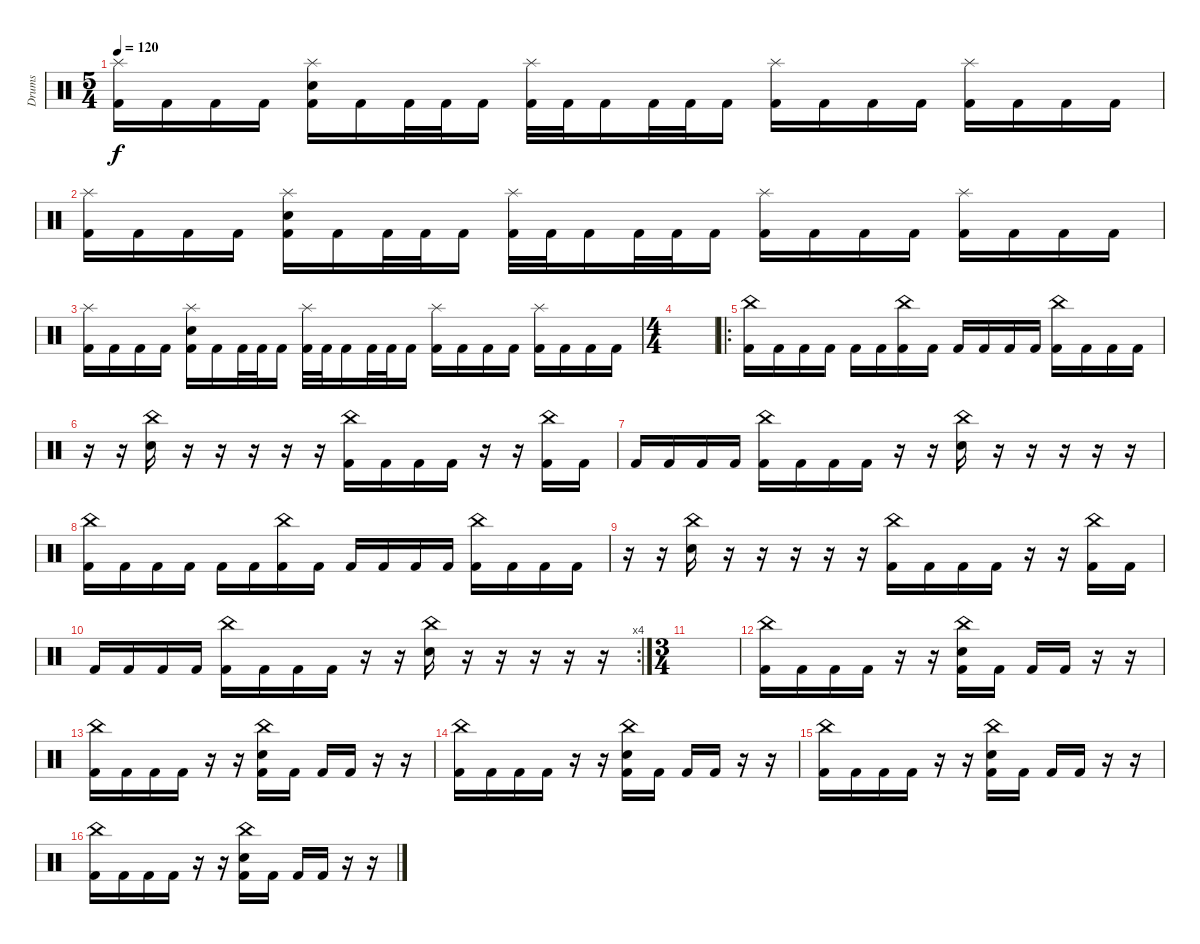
\track ("Drums" "Drums") {instrument percussion}
\staff {score}
\articulation defaults
\ts (5 4)
\tempo 120
\clef neutral
\ks c
("Splash (hit)" "Kick (hit) 2").16{dy f} "Kick (hit) 2".16 "Kick (hit) 2".16 "Kick (hit) 2".16 ("Splash (hit)" "Electric Snare (hit)" "Kick (hit) 2").16 "Kick (hit) 2".16 "Kick (hit) 2".32 "Kick (hit) 2".32 "Kick (hit) 2".16 ("Splash (hit)" "Kick (hit) 2").32 "Kick (hit) 2".32 "Kick (hit) 2".16 "Kick (hit) 2".32 "Kick (hit) 2".32 "Kick (hit) 2".16 ("Splash (hit)" "Kick (hit) 2").16 "Kick (hit) 2".16 "Kick (hit) 2".16 "Kick (hit) 2".16 ("Splash (hit)" "Kick (hit) 2").16 "Kick (hit) 2".16 "Kick (hit) 2".16 "Kick (hit) 2".16 |
("Splash (hit)" "Kick (hit) 2").16 "Kick (hit) 2".16 "Kick (hit) 2".16 "Kick (hit) 2".16 ("Splash (hit)" "Electric Snare (hit)" "Kick (hit) 2").16 "Kick (hit) 2".16 "Kick (hit) 2".32 "Kick (hit) 2".32 "Kick (hit) 2".16 ("Splash (hit)" "Kick (hit) 2").32 "Kick (hit) 2".32 "Kick (hit) 2".16 "Kick (hit) 2".32 "Kick (hit) 2".32 "Kick (hit) 2".16 ("Splash (hit)" "Kick (hit) 2").16 "Kick (hit) 2".16 "Kick (hit) 2".16 "Kick (hit) 2".16 ("Splash (hit)" "Kick (hit) 2").16 "Kick (hit) 2".16 "Kick (hit) 2".16 "Kick (hit) 2".16 |
("Splash (hit)" "Kick (hit) 2").16 "Kick (hit) 2".16 "Kick (hit) 2".16 "Kick (hit) 2".16 ("Splash (hit)" "Electric Snare (hit)" "Kick (hit) 2").16 "Kick (hit) 2".16 "Kick (hit) 2".32 "Kick (hit) 2".32 "Kick (hit) 2".16 ("Splash (hit)" "Kick (hit) 2").32 "Kick (hit) 2".32 "Kick (hit) 2".16 "Kick (hit) 2".32 "Kick (hit) 2".32 "Kick (hit) 2".16 ("Splash (hit)" "Kick (hit) 2").16 "Kick (hit) 2".16 "Kick (hit) 2".16 "Kick (hit) 2".16 ("Splash (hit)" "Kick (hit) 2").16 "Kick (hit) 2".16 "Kick (hit) 2".16 "Kick (hit) 2".16 |
\ts (4 4)
|
\ro
("China (hit)" "Kick (hit) 2").16 "Kick (hit) 2".16 "Kick (hit) 2".16 "Kick (hit) 2".16 "Kick (hit) 2".16 "Kick (hit) 2".16 ("China (hit)" "Kick (hit) 2").16 "Kick (hit) 2".16 "Kick (hit) 2".16 "Kick (hit) 2".16 "Kick (hit) 2".16 "Kick (hit) 2".16 ("China (hit)" "Kick (hit) 2").16 "Kick (hit) 2".16 "Kick (hit) 2".16 "Kick (hit) 2".16 |
r.16 r.16 ("China (hit)" "Electric Snare (hit)").16 r.16 r.16 r.16 r.16 r.16 ("China (hit)" "Kick (hit) 2").16 "Kick (hit) 2".16 "Kick (hit) 2".16 "Kick (hit) 2".16 r.16 r.16 ("China (hit)" "Kick (hit) 2").16 "Kick (hit) 2".16 |
"Kick (hit) 2".16 "Kick (hit) 2".16 "Kick (hit) 2".16 "Kick (hit) 2".16 ("China (hit)" "Kick (hit) 2").16 "Kick (hit) 2".16 "Kick (hit) 2".16 "Kick (hit) 2".16 r.16 r.16 ("China (hit)" "Electric Snare (hit)").16 r.16 r.16 r.16 r.16 r.16 |
("China (hit)" "Kick (hit) 2").16 "Kick (hit) 2".16 "Kick (hit) 2".16 "Kick (hit) 2".16 "Kick (hit) 2".16 "Kick (hit) 2".16 ("China (hit)" "Kick (hit) 2").16 "Kick (hit) 2".16 "Kick (hit) 2".16 "Kick (hit) 2".16 "Kick (hit) 2".16 "Kick (hit) 2".16 ("China (hit)" "Kick (hit) 2").16 "Kick (hit) 2".16 "Kick (hit) 2".16 "Kick (hit) 2".16 |
r.16 r.16 ("China (hit)" "Electric Snare (hit)").16 r.16 r.16 r.16 r.16 r.16 ("China (hit)" "Kick (hit) 2").16 "Kick (hit) 2".16 "Kick (hit) 2".16 "Kick (hit) 2".16 r.16 r.16 ("China (hit)" "Kick (hit) 2").16 "Kick (hit) 2".16 |
\rc 4 "Kick (hit) 2".16 "Kick (hit) 2".16 "Kick (hit) 2".16 "Kick (hit) 2".16
("China (hit)" "Kick (hit) 2").16 "Kick (hit) 2".16 "Kick (hit) 2".16 "Kick (hit) 2".16 r.16 r.16 ("China (hit)" "Electric Snare (hit)").16 r.16 r.16 r.16 r.16 r.16 |
\ts (3 4)
|
("China (hit)" "Kick (hit) 2").16 "Kick (hit) 2".16 "Kick (hit) 2".16 "Kick (hit) 2".16 r.16 r.16 ("China (hit)" "Electric Snare (hit)" "Kick (hit) 2").16 "Kick (hit) 2".16 "Kick (hit) 2".16 "Kick (hit) 2".16 r.16 r.16 |
("China (hit)" "Kick (hit) 2").16 "Kick (hit) 2".16 "Kick (hit) 2".16 "Kick (hit) 2".16 r.16 r.16 ("China (hit)" "Electric Snare (hit)" "Kick (hit) 2").16 "Kick (hit) 2".16 "Kick (hit) 2".16 "Kick (hit) 2".16 r.16 r.16 |
("China (hit)" "Kick (hit) 2").16 "Kick (hit) 2".16 "Kick (hit) 2".16 "Kick (hit) 2".16 r.16 r.16 ("China (hit)" "Electric Snare (hit)" "Kick (hit) 2").16 "Kick (hit) 2".16 "Kick (hit) 2".16 "Kick (hit) 2".16 r.16 r.16 |
("China (hit)" "Kick (hit) 2").16 "Kick (hit) 2".16 "Kick (hit) 2".16 "Kick (hit) 2".16 r.16 r.16 ("China (hit)" "Electric Snare (hit)" "Kick (hit) 2").16 "Kick (hit) 2".16 "Kick (hit) 2".16 "Kick (hit) 2".16 r.16 r.16 |
("China (hit)" "Kick (hit) 2").16 "Kick (hit) 2".16 "Kick (hit) 2".16 "Kick (hit) 2".16 r.16 r.16 ("China (hit)" "Electric Snare (hit)" "Kick (hit) 2").16 "Kick (hit) 2".16 "Kick (hit) 2".16 "Kick (hit) 2".16 r.16 r.16
